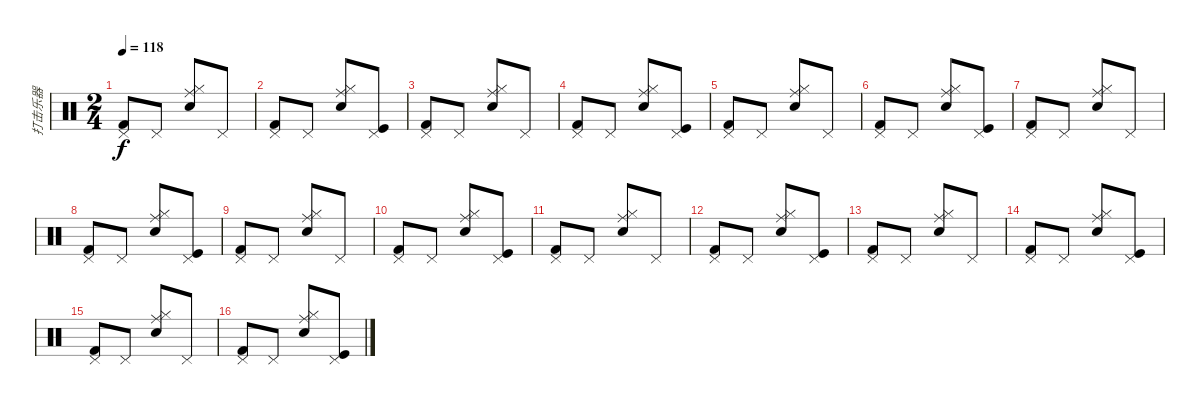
\track ("打击乐器" "打击乐器") {instrument percussion}
\staff {score}
\articulation defaults
\ts (2 4)
\tempo 118
\clef neutral
\ks c
("Pedal Hi-Hat (hit)" "Kick (hit) 2").8{dy f} "Pedal Hi-Hat (hit)".8 ("Ride (middle)" "Hi-Hat (closed)" "Snare (hit) 2").8 "Pedal Hi-Hat (hit)".8 |
("Pedal Hi-Hat (hit)" "Kick (hit) 2").8 "Pedal Hi-Hat (hit)".8 ("Ride (middle)" "Hi-Hat (closed)" "Snare (hit) 2").8 ("Pedal Hi-Hat (hit)" "Kick (hit)").8 |
("Pedal Hi-Hat (hit)" "Kick (hit) 2").8 "Pedal Hi-Hat (hit)".8 ("Ride (middle)" "Hi-Hat (closed)" "Snare (hit) 2").8 "Pedal Hi-Hat (hit)".8 |
("Pedal Hi-Hat (hit)" "Kick (hit) 2").8 "Pedal Hi-Hat (hit)".8 ("Ride (middle)" "Hi-Hat (closed)" "Snare (hit) 2").8 ("Pedal Hi-Hat (hit)" "Kick (hit)").8 |
("Pedal Hi-Hat (hit)" "Kick (hit) 2").8 "Pedal Hi-Hat (hit)".8 ("Ride (middle)" "Hi-Hat (closed)" "Snare (hit) 2").8 "Pedal Hi-Hat (hit)".8 |
("Pedal Hi-Hat (hit)" "Kick (hit) 2").8 "Pedal Hi-Hat (hit)".8 ("Ride (middle)" "Hi-Hat (closed)" "Snare (hit) 2").8 ("Pedal Hi-Hat (hit)" "Kick (hit)").8 |
("Pedal Hi-Hat (hit)" "Kick (hit) 2").8 "Pedal Hi-Hat (hit)".8 ("Ride (middle)" "Hi-Hat (closed)" "Snare (hit) 2").8 "Pedal Hi-Hat (hit)".8 |
("Pedal Hi-Hat (hit)" "Kick (hit) 2").8 "Pedal Hi-Hat (hit)".8 ("Ride (middle)" "Hi-Hat (closed)" "Snare (hit) 2").8 ("Pedal Hi-Hat (hit)" "Kick (hit)").8 |
("Pedal Hi-Hat (hit)" "Kick (hit) 2").8 "Pedal Hi-Hat (hit)".8 ("Ride (middle)" "Hi-Hat (closed)" "Snare (hit) 2").8 "Pedal Hi-Hat (hit)".8 |
("Pedal Hi-Hat (hit)" "Kick (hit) 2").8 "Pedal Hi-Hat (hit)".8 ("Ride (middle)" "Hi-Hat (closed)" "Snare (hit) 2").8 ("Pedal Hi-Hat (hit)" "Kick (hit)").8 |
("Pedal Hi-Hat (hit)" "Kick (hit) 2").8 "Pedal Hi-Hat (hit)".8 ("Ride (middle)" "Hi-Hat (closed)" "Snare (hit) 2").8 "Pedal Hi-Hat (hit)".8 |
("Pedal Hi-Hat (hit)" "Kick (hit) 2").8 "Pedal Hi-Hat (hit)".8 ("Ride (middle)" "Hi-Hat (closed)" "Snare (hit) 2").8 ("Pedal Hi-Hat (hit)" "Kick (hit)").8 |
("Pedal Hi-Hat (hit)" "Kick (hit) 2").8 "Pedal Hi-Hat (hit)".8 ("Ride (middle)" "Hi-Hat (closed)" "Snare (hit) 2").8 "Pedal Hi-Hat (hit)".8 |
("Pedal Hi-Hat (hit)" "Kick (hit) 2").8 "Pedal Hi-Hat (hit)".8 ("Ride (middle)" "Hi-Hat (closed)" "Snare (hit) 2").8 ("Pedal Hi-Hat (hit)" "Kick (hit)").8 |
("Pedal Hi-Hat (hit)" "Kick (hit) 2").8 "Pedal Hi-Hat (hit)".8 ("Ride (middle)" "Hi-Hat (closed)" "Snare (hit) 2").8 "Pedal Hi-Hat (hit)".8 |
("Pedal Hi-Hat (hit)" "Kick (hit) 2").8 "Pedal Hi-Hat (hit)".8 ("Ride (middle)" "Hi-Hat (closed)" "Snare (hit) 2").8 ("Pedal Hi-Hat (hit)" "Kick (hit)").8
